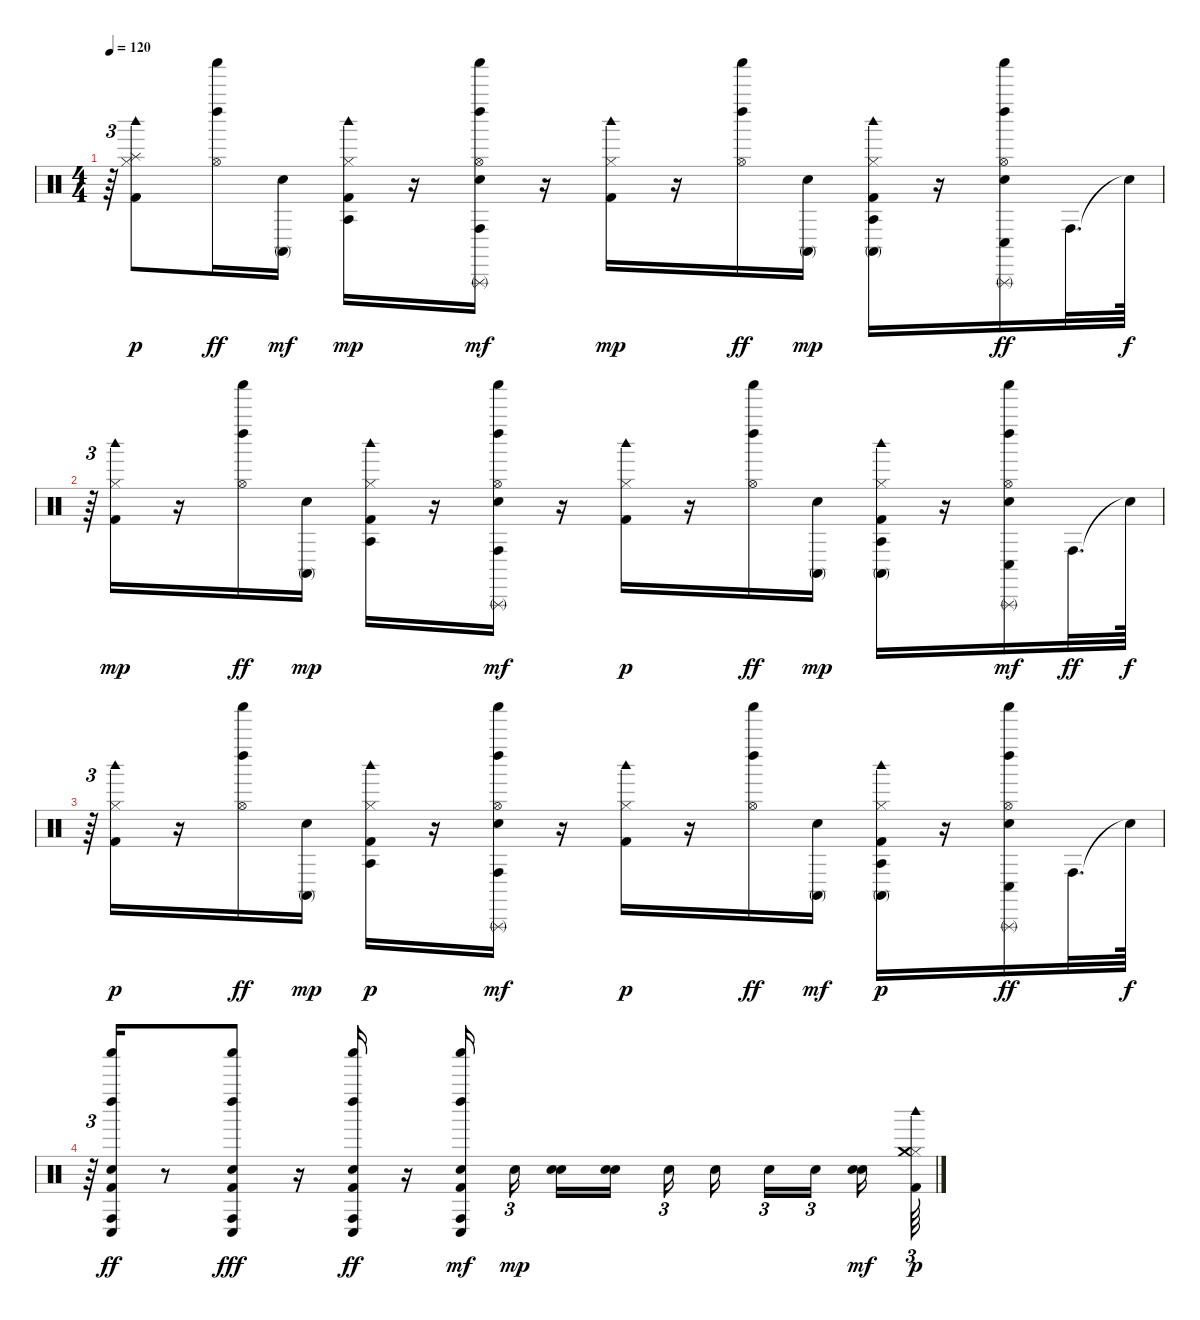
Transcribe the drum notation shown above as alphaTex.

\track "" {instrument percussion}
\staff {score}
\articulation defaults
\ts (4 4)
\tempo 120
\clef neutral
\ks c
r.64{tu (3 2) dy f} ("Kick (hit) 2" "Hi-Hat (closed)" "Splash (hit)" "Woodblock high (hit)").8{dy p} ("Shaker (hit)" "Left Maraca (hit)" "Hi-Hat (open)").16{dy ff} ("Electric Snare (hit)" "Conga high (mute)").16{dy mf} ("Kick (hit) 2" "Hi-Hat (closed)" "Agogo tow (hit)" "Woodblock high (hit)").16{dy mp} r.16 ("Shaker (hit)" "Left Maraca (hit)" "Electric Snare (hit)" "Conga high (hit)" "Hi-Hat (open)" "Triangle (rnute)").16{dy mf} r.16 ("Kick (hit) 2" "Hi-Hat (closed)" "Woodblock high (hit)").16{dy mp} r.16 ("Shaker (hit)" "Left Maraca (hit)" "Hi-Hat (open)").16{dy ff} ("Electric Snare (hit)" "Conga high (mute)").16{dy mp} ("Kick (hit) 2" "Conga high (mute)" "Hi-Hat (closed)" "Agogo tow (hit)" "Woodblock high (hit)").16 r.16 ("Shaker (hit)" "Left Maraca (hit)" "Electric Snare (hit)" "Conga low (hit)" "Hi-Hat (open)" "Triangle (rnute)").16{dy ff} "Conga high (hit)".32{d} "Snare (hit)"{t}.64{dy f} |
r.64{tu (3 2)} ("Kick (hit) 2" "Hi-Hat (closed)" "Woodblock high (hit)").16{dy mp} r.16 ("Shaker (hit)" "Left Maraca (hit)" "Hi-Hat (open)").16{dy ff} ("Electric Snare (hit)" "Conga high (mute)").16{dy mp} ("Kick (hit) 2" "Hi-Hat (closed)" "Agogo tow (hit)" "Woodblock high (hit)").16 r.16 ("Shaker (hit)" "Left Maraca (hit)" "Electric Snare (hit)" "Conga high (hit)" "Hi-Hat (open)" "Triangle (rnute)").16{dy mf} r.16 ("Kick (hit) 2" "Hi-Hat (closed)" "Woodblock high (hit)").16{dy p} r.16 ("Shaker (hit)" "Left Maraca (hit)" "Hi-Hat (open)").16{dy ff} ("Electric Snare (hit)" "Conga high (mute)").16{dy mp} ("Kick (hit) 2" "Conga high (mute)" "Hi-Hat (closed)" "Agogo tow (hit)" "Woodblock high (hit)").16 r.16 ("Shaker (hit)" "Left Maraca (hit)" "Electric Snare (hit)" "Conga low (hit)" "Hi-Hat (open)" "Triangle (rnute)").16{dy mf} "Conga high (hit)".32{d dy ff} "Snare (hit)"{t}.64{dy f} |
r.64{tu (3 2)} ("Kick (hit) 2" "Hi-Hat (closed)" "Woodblock high (hit)").16{dy p} r.16 ("Shaker (hit)" "Left Maraca (hit)" "Hi-Hat (open)").16{dy ff} ("Electric Snare (hit)" "Conga high (mute)").16{dy mp} ("Kick (hit) 2" "Hi-Hat (closed)" "Agogo tow (hit)" "Woodblock high (hit)").16{dy p} r.16 ("Shaker (hit)" "Left Maraca (hit)" "Electric Snare (hit)" "Conga high (hit)" "Hi-Hat (open)" "Triangle (rnute)").16{dy mf} r.16 ("Kick (hit) 2" "Hi-Hat (closed)" "Woodblock high (hit)").16{dy p} r.16 ("Shaker (hit)" "Left Maraca (hit)" "Hi-Hat (open)").16{dy ff} ("Electric Snare (hit)" "Conga high (mute)").16{dy mf} ("Kick (hit) 2" "Conga high (mute)" "Hi-Hat (closed)" "Agogo tow (hit)" "Woodblock high (hit)").16{dy p} r.16 ("Shaker (hit)" "Left Maraca (hit)" "Electric Snare (hit)" "Conga low (hit)" "Hi-Hat (open)" "Triangle (rnute)").16{dy ff} "Conga high (hit)".32{d} "Snare (hit)"{t}.64{dy f} |
r.64{tu (3 2)} ("Kick (hit) 2" "Shaker (hit)" "Left Maraca (hit)" "Electric Snare (hit)" "Conga low (hit)" "Conga high (hit)").16{dy ff} r.8 ("Kick (hit) 2" "Shaker (hit)" "Left Maraca (hit)" "Electric Snare (hit)" "Conga low (hit)" "Conga high (hit)").8{dy fff} r.16 ("Kick (hit) 2" "Shaker (hit)" "Left Maraca (hit)" "Electric Snare (hit)" "Conga low (hit)" "Conga high (hit)").16{dy ff} r.16 ("Kick (hit) 2" "Shaker (hit)" "Left Maraca (hit)" "Electric Snare (hit)" "Conga high (hit)" "Conga low (hit)").16{dy mf beam splitsecondary} "Snare (hit) 2".16{tu (3 2) dy mp beam splitsecondary} ("Snare (hit) 2" "Snare (hit) 2").16 ("Snare (hit) 2" "Snare (hit) 2").16{beam splitsecondary} "Snare (hit) 2".16{tu (3 2)} "Snare (hit) 2".16{beam splitsecondary} "Snare (hit) 2".16{tu (3 2)} "Snare (hit) 2".16{tu (3 2) beam splitsecondary} ("Snare (hit) 2" "Snare (hit) 2").16{dy mf} ("Kick (hit) 2" "Hi-Hat (closed)" "Crash medium (hit)" "Woodblock high (hit)").64{tu (3 2) dy p}
